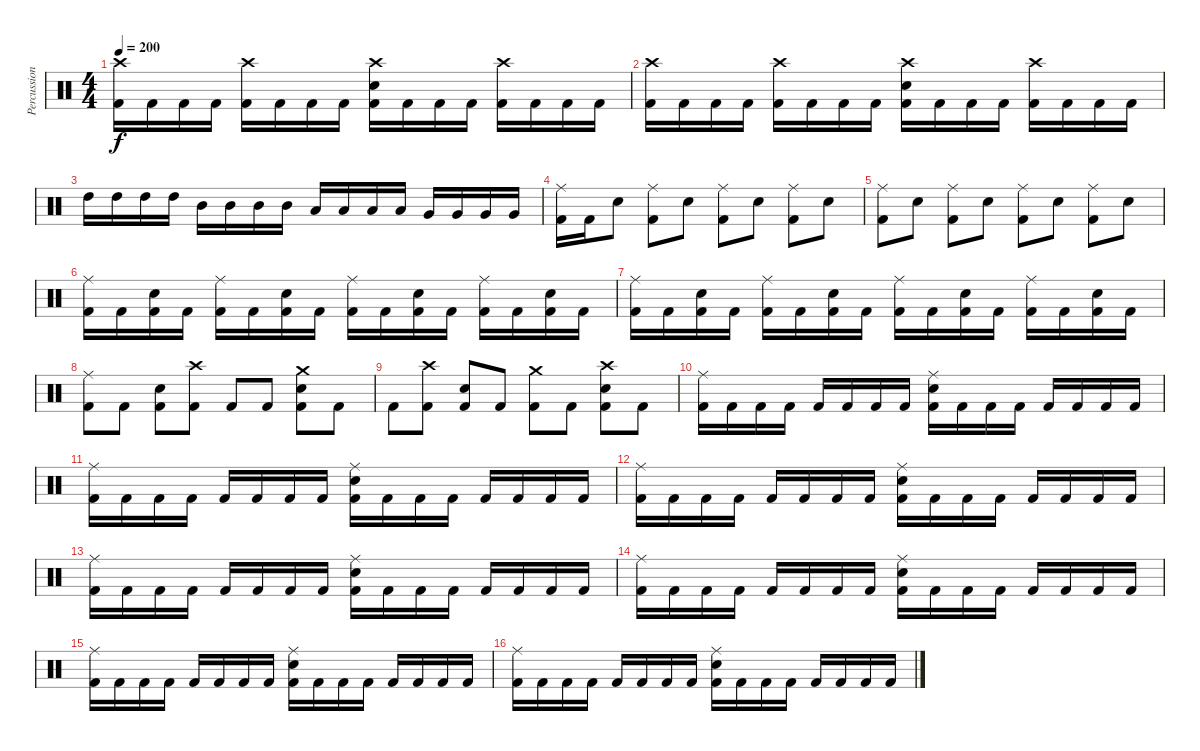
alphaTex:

\track ("Percussion" "Percussion") {instrument percussion}
\staff {score}
\articulation defaults
\ts (4 4)
\tempo 200
\clef neutral
\ks c
("Crash high (hit)" "Kick (hit) 2").16{dy f} "Kick (hit) 2".16 "Kick (hit) 2".16 "Kick (hit) 2".16 ("Crash high (hit)" "Kick (hit) 2").16 "Kick (hit) 2".16 "Kick (hit) 2".16 "Kick (hit) 2".16 ("Crash high (hit)" "Kick (hit) 2" "Snare (hit) 2").16 "Kick (hit) 2".16 "Kick (hit) 2".16 "Kick (hit) 2".16 ("Crash high (hit)" "Kick (hit) 2").16 "Kick (hit) 2".16 "Kick (hit) 2".16 "Kick (hit) 2".16 |
("Crash high (hit)" "Kick (hit) 2").16 "Kick (hit) 2".16 "Kick (hit) 2".16 "Kick (hit) 2".16 ("Crash high (hit)" "Kick (hit) 2").16 "Kick (hit) 2".16 "Kick (hit) 2".16 "Kick (hit) 2".16 ("Crash high (hit)" "Kick (hit) 2" "Snare (hit) 2").16 "Kick (hit) 2".16 "Kick (hit) 2".16 "Kick (hit) 2".16 ("Crash high (hit)" "Kick (hit) 2").16 "Kick (hit) 2".16 "Kick (hit) 2".16 "Kick (hit) 2".16 |
"High Tom (hit)".16 "High Tom (hit)".16 "High Tom (hit)".16 "High Tom (hit)".16 "Mid Tom (hit)".16 "Mid Tom (hit)".16 "Mid Tom (hit)".16 "Mid Tom (hit)".16 "Low Tom (hit)".16 "Low Tom (hit)".16 "Low Tom (hit)".16 "Low Tom (hit)".16 "Very Low Tom (hit)".16 "Very Low Tom (hit)".16 "Very Low Tom (hit)".16 "Very Low Tom (hit)".16 |
("Ride (middle)" "Kick (hit) 2").16 "Kick (hit) 2".16 "Snare (hit) 2".8 ("Ride (middle)" "Kick (hit) 2").8 "Snare (hit) 2".8 ("Ride (middle)" "Kick (hit) 2").8 "Snare (hit) 2".8 ("Ride (middle)" "Kick (hit) 2").8 "Snare (hit) 2".8 |
("Ride (middle)" "Kick (hit) 2").8 "Snare (hit) 2".8 ("Ride (middle)" "Kick (hit) 2").8 "Snare (hit) 2".8 ("Ride (middle)" "Kick (hit) 2").8 "Snare (hit) 2".8 ("Ride (middle)" "Kick (hit) 2").8 "Snare (hit) 2".8 |
("Ride (middle)" "Kick (hit) 2").16 "Kick (hit) 2".16 ("Snare (hit) 2" "Kick (hit) 2").16 "Kick (hit) 2".16 ("Ride (middle)" "Kick (hit) 2").16 "Kick (hit) 2".16 ("Snare (hit) 2" "Kick (hit) 2").16 "Kick (hit) 2".16 ("Ride (middle)" "Kick (hit) 2").16 "Kick (hit) 2".16 ("Snare (hit) 2" "Kick (hit) 2").16 "Kick (hit) 2".16 ("Ride (middle)" "Kick (hit) 2").16 "Kick (hit) 2".16 ("Snare (hit) 2" "Kick (hit) 2").16 "Kick (hit) 2".16 |
("Ride (middle)" "Kick (hit) 2").16 "Kick (hit) 2".16 ("Snare (hit) 2" "Kick (hit) 2").16 "Kick (hit) 2".16 ("Ride (middle)" "Kick (hit) 2").16 "Kick (hit) 2".16 ("Snare (hit) 2" "Kick (hit) 2").16 "Kick (hit) 2".16 ("Ride (middle)" "Kick (hit) 2").16 "Kick (hit) 2".16 ("Snare (hit) 2" "Kick (hit) 2").16 "Kick (hit) 2".16 ("Ride (middle)" "Kick (hit) 2").16 "Kick (hit) 2".16 ("Snare (hit) 2" "Kick (hit) 2").16 "Kick (hit) 2".16 |
("Kick (hit) 2" "Ride (middle)").8 "Kick (hit) 2".8 ("Snare (hit) 2" "Kick (hit) 2").8 ("Kick (hit) 2" "Crash high (hit)").8 "Kick (hit) 2".8 "Kick (hit) 2".8 ("Snare (hit) 2" "Kick (hit) 2" "Crash medium (hit)").8 "Kick (hit) 2".8 |
"Kick (hit) 2".8 ("Kick (hit) 2" "Crash high (hit)").8 ("Snare (hit) 2" "Kick (hit) 2").8 "Kick (hit) 2".8 ("Kick (hit) 2" "Crash medium (hit)").8 "Kick (hit) 2".8 ("Snare (hit) 2" "Kick (hit) 2" "Crash high (hit)").8 "Kick (hit) 2".8 |
("Ride (middle)" "Kick (hit) 2").16 "Kick (hit) 2".16 "Kick (hit) 2".16 "Kick (hit) 2".16 "Kick (hit) 2".16 "Kick (hit) 2".16 "Kick (hit) 2".16 "Kick (hit) 2".16 ("Ride (middle)" "Snare (hit) 2" "Kick (hit) 2").16 "Kick (hit) 2".16 "Kick (hit) 2".16 "Kick (hit) 2".16 "Kick (hit) 2".16 "Kick (hit) 2".16 "Kick (hit) 2".16 "Kick (hit) 2".16 |
("Ride (middle)" "Kick (hit) 2").16 "Kick (hit) 2".16 "Kick (hit) 2".16 "Kick (hit) 2".16 "Kick (hit) 2".16 "Kick (hit) 2".16 "Kick (hit) 2".16 "Kick (hit) 2".16 ("Ride (middle)" "Snare (hit) 2" "Kick (hit) 2").16 "Kick (hit) 2".16 "Kick (hit) 2".16 "Kick (hit) 2".16 "Kick (hit) 2".16 "Kick (hit) 2".16 "Kick (hit) 2".16 "Kick (hit) 2".16 |
("Ride (middle)" "Kick (hit) 2").16 "Kick (hit) 2".16 "Kick (hit) 2".16 "Kick (hit) 2".16 "Kick (hit) 2".16 "Kick (hit) 2".16 "Kick (hit) 2".16 "Kick (hit) 2".16 ("Ride (middle)" "Snare (hit) 2" "Kick (hit) 2").16 "Kick (hit) 2".16 "Kick (hit) 2".16 "Kick (hit) 2".16 "Kick (hit) 2".16 "Kick (hit) 2".16 "Kick (hit) 2".16 "Kick (hit) 2".16 |
("Ride (middle)" "Kick (hit) 2").16 "Kick (hit) 2".16 "Kick (hit) 2".16 "Kick (hit) 2".16 "Kick (hit) 2".16 "Kick (hit) 2".16 "Kick (hit) 2".16 "Kick (hit) 2".16 ("Ride (middle)" "Snare (hit) 2" "Kick (hit) 2").16 "Kick (hit) 2".16 "Kick (hit) 2".16 "Kick (hit) 2".16 "Kick (hit) 2".16 "Kick (hit) 2".16 "Kick (hit) 2".16 "Kick (hit) 2".16 |
("Ride (middle)" "Kick (hit) 2").16 "Kick (hit) 2".16 "Kick (hit) 2".16 "Kick (hit) 2".16 "Kick (hit) 2".16 "Kick (hit) 2".16 "Kick (hit) 2".16 "Kick (hit) 2".16 ("Ride (middle)" "Snare (hit) 2" "Kick (hit) 2").16 "Kick (hit) 2".16 "Kick (hit) 2".16 "Kick (hit) 2".16 "Kick (hit) 2".16 "Kick (hit) 2".16 "Kick (hit) 2".16 "Kick (hit) 2".16 |
("Ride (middle)" "Kick (hit) 2").16 "Kick (hit) 2".16 "Kick (hit) 2".16 "Kick (hit) 2".16 "Kick (hit) 2".16 "Kick (hit) 2".16 "Kick (hit) 2".16 "Kick (hit) 2".16 ("Ride (middle)" "Snare (hit) 2" "Kick (hit) 2").16 "Kick (hit) 2".16 "Kick (hit) 2".16 "Kick (hit) 2".16 "Kick (hit) 2".16 "Kick (hit) 2".16 "Kick (hit) 2".16 "Kick (hit) 2".16 |
("Ride (middle)" "Kick (hit) 2").16 "Kick (hit) 2".16 "Kick (hit) 2".16 "Kick (hit) 2".16 "Kick (hit) 2".16 "Kick (hit) 2".16 "Kick (hit) 2".16 "Kick (hit) 2".16 ("Ride (middle)" "Snare (hit) 2" "Kick (hit) 2").16 "Kick (hit) 2".16 "Kick (hit) 2".16 "Kick (hit) 2".16 "Kick (hit) 2".16 "Kick (hit) 2".16 "Kick (hit) 2".16 "Kick (hit) 2".16
